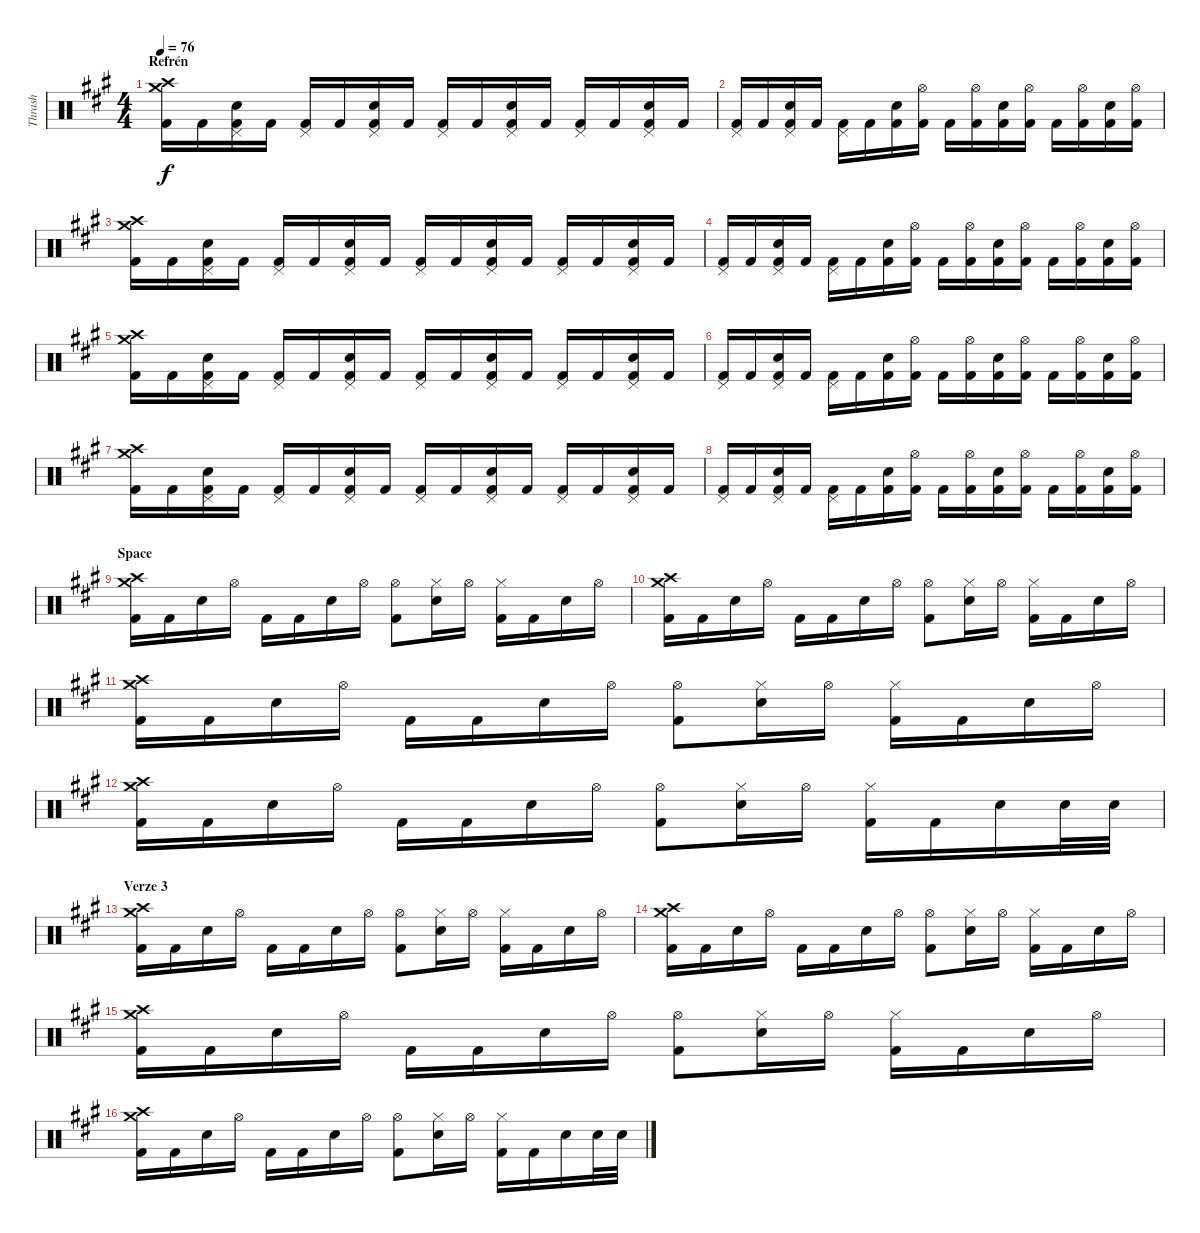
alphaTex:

\track ("Thrash" "Thrash") {instrument percussion}
\staff {score}
\articulation defaults
\ts (4 4)
\section ("" "Refrén")
\tempo 76
\clef neutral
\ks a
("Crash medium (hit)" "Crash high (hit)" "Kick (hit) 2").16{dy f} "Kick (hit) 2".16 ("Pedal Hi-Hat (hit)" "Snare (hit) 2" "Kick (hit) 2").16 "Kick (hit) 2".16 ("Pedal Hi-Hat (hit)" "Kick (hit) 2").16 "Kick (hit) 2".16 ("Pedal Hi-Hat (hit)" "Snare (hit) 2" "Kick (hit) 2").16 "Kick (hit) 2".16 ("Pedal Hi-Hat (hit)" "Kick (hit) 2").16 "Kick (hit) 2".16 ("Pedal Hi-Hat (hit)" "Snare (hit) 2" "Kick (hit) 2").16 "Kick (hit) 2".16 ("Pedal Hi-Hat (hit)" "Kick (hit) 2").16 "Kick (hit) 2".16 ("Pedal Hi-Hat (hit)" "Snare (hit) 2" "Kick (hit) 2").16 "Kick (hit) 2".16 |
("Pedal Hi-Hat (hit)" "Kick (hit) 2").16 "Kick (hit) 2".16 ("Pedal Hi-Hat (hit)" "Snare (hit) 2" "Kick (hit) 2").16 "Kick (hit) 2".16 ("Pedal Hi-Hat (hit)" "Kick (hit) 2").16 "Kick (hit) 2".16 ("Snare (hit) 2" "Kick (hit) 2").16 ("Hi-Hat (open)" "Kick (hit) 2").16 "Kick (hit) 2".16 ("Hi-Hat (open)" "Kick (hit) 2").16 ("Snare (hit) 2" "Kick (hit) 2").16 ("Hi-Hat (open)" "Kick (hit) 2").16 "Kick (hit) 2".16 ("Hi-Hat (open)" "Kick (hit) 2").16 ("Snare (hit) 2" "Kick (hit) 2").16 ("Hi-Hat (open)" "Kick (hit) 2").16 |
("Crash medium (hit)" "Crash high (hit)" "Kick (hit) 2").16 "Kick (hit) 2".16 ("Pedal Hi-Hat (hit)" "Snare (hit) 2" "Kick (hit) 2").16 "Kick (hit) 2".16 ("Pedal Hi-Hat (hit)" "Kick (hit) 2").16 "Kick (hit) 2".16 ("Pedal Hi-Hat (hit)" "Snare (hit) 2" "Kick (hit) 2").16 "Kick (hit) 2".16 ("Pedal Hi-Hat (hit)" "Kick (hit) 2").16 "Kick (hit) 2".16 ("Pedal Hi-Hat (hit)" "Snare (hit) 2" "Kick (hit) 2").16 "Kick (hit) 2".16 ("Pedal Hi-Hat (hit)" "Kick (hit) 2").16 "Kick (hit) 2".16 ("Pedal Hi-Hat (hit)" "Snare (hit) 2" "Kick (hit) 2").16 "Kick (hit) 2".16 |
("Pedal Hi-Hat (hit)" "Kick (hit) 2").16 "Kick (hit) 2".16 ("Pedal Hi-Hat (hit)" "Snare (hit) 2" "Kick (hit) 2").16 "Kick (hit) 2".16 ("Pedal Hi-Hat (hit)" "Kick (hit) 2").16 "Kick (hit) 2".16 ("Snare (hit) 2" "Kick (hit) 2").16 ("Hi-Hat (open)" "Kick (hit) 2").16 "Kick (hit) 2".16 ("Hi-Hat (open)" "Kick (hit) 2").16 ("Snare (hit) 2" "Kick (hit) 2").16 ("Hi-Hat (open)" "Kick (hit) 2").16 "Kick (hit) 2".16 ("Hi-Hat (open)" "Kick (hit) 2").16 ("Snare (hit) 2" "Kick (hit) 2").16 ("Hi-Hat (open)" "Kick (hit) 2").16 |
("Crash medium (hit)" "Crash high (hit)" "Kick (hit) 2").16 "Kick (hit) 2".16 ("Pedal Hi-Hat (hit)" "Snare (hit) 2" "Kick (hit) 2").16 "Kick (hit) 2".16 ("Pedal Hi-Hat (hit)" "Kick (hit) 2").16 "Kick (hit) 2".16 ("Pedal Hi-Hat (hit)" "Snare (hit) 2" "Kick (hit) 2").16 "Kick (hit) 2".16 ("Pedal Hi-Hat (hit)" "Kick (hit) 2").16 "Kick (hit) 2".16 ("Pedal Hi-Hat (hit)" "Snare (hit) 2" "Kick (hit) 2").16 "Kick (hit) 2".16 ("Pedal Hi-Hat (hit)" "Kick (hit) 2").16 "Kick (hit) 2".16 ("Pedal Hi-Hat (hit)" "Snare (hit) 2" "Kick (hit) 2").16 "Kick (hit) 2".16 |
("Pedal Hi-Hat (hit)" "Kick (hit) 2").16 "Kick (hit) 2".16 ("Pedal Hi-Hat (hit)" "Snare (hit) 2" "Kick (hit) 2").16 "Kick (hit) 2".16 ("Pedal Hi-Hat (hit)" "Kick (hit) 2").16 "Kick (hit) 2".16 ("Snare (hit) 2" "Kick (hit) 2").16 ("Hi-Hat (open)" "Kick (hit) 2").16 "Kick (hit) 2".16 ("Hi-Hat (open)" "Kick (hit) 2").16 ("Snare (hit) 2" "Kick (hit) 2").16 ("Hi-Hat (open)" "Kick (hit) 2").16 "Kick (hit) 2".16 ("Hi-Hat (open)" "Kick (hit) 2").16 ("Snare (hit) 2" "Kick (hit) 2").16 ("Hi-Hat (open)" "Kick (hit) 2").16 |
("Crash medium (hit)" "Crash high (hit)" "Kick (hit) 2").16 "Kick (hit) 2".16 ("Pedal Hi-Hat (hit)" "Snare (hit) 2" "Kick (hit) 2").16 "Kick (hit) 2".16 ("Pedal Hi-Hat (hit)" "Kick (hit) 2").16 "Kick (hit) 2".16 ("Pedal Hi-Hat (hit)" "Snare (hit) 2" "Kick (hit) 2").16 "Kick (hit) 2".16 ("Pedal Hi-Hat (hit)" "Kick (hit) 2").16 "Kick (hit) 2".16 ("Pedal Hi-Hat (hit)" "Snare (hit) 2" "Kick (hit) 2").16 "Kick (hit) 2".16 ("Pedal Hi-Hat (hit)" "Kick (hit) 2").16 "Kick (hit) 2".16 ("Pedal Hi-Hat (hit)" "Snare (hit) 2" "Kick (hit) 2").16 "Kick (hit) 2".16 |
("Pedal Hi-Hat (hit)" "Kick (hit) 2").16 "Kick (hit) 2".16 ("Pedal Hi-Hat (hit)" "Snare (hit) 2" "Kick (hit) 2").16 "Kick (hit) 2".16 ("Pedal Hi-Hat (hit)" "Kick (hit) 2").16 "Kick (hit) 2".16 ("Snare (hit) 2" "Kick (hit) 2").16 ("Hi-Hat (open)" "Kick (hit) 2").16 "Kick (hit) 2".16 ("Hi-Hat (open)" "Kick (hit) 2").16 ("Snare (hit) 2" "Kick (hit) 2").16 ("Hi-Hat (open)" "Kick (hit) 2").16 "Kick (hit) 2".16 ("Hi-Hat (open)" "Kick (hit) 2").16 ("Snare (hit) 2" "Kick (hit) 2").16 ("Hi-Hat (open)" "Kick (hit) 2").16 |
\section ("" "Space")
("Crash medium (hit)" "Crash high (hit)" "Kick (hit) 2").16 "Kick (hit) 2".16 "Snare (hit) 2".16 "Hi-Hat (open)".16 "Kick (hit) 2".16 "Kick (hit) 2".16 "Snare (hit) 2".16 "Hi-Hat (open)".16 ("Hi-Hat (open)" "Kick (hit) 2").8 ("Hi-Hat (closed)" "Snare (hit) 2").16 "Hi-Hat (open)".16 ("Hi-Hat (closed)" "Kick (hit) 2").16 "Kick (hit) 2".16 "Snare (hit) 2".16 "Hi-Hat (open)".16 |
("Crash medium (hit)" "Crash high (hit)" "Kick (hit) 2").16 "Kick (hit) 2".16 "Snare (hit) 2".16 "Hi-Hat (open)".16 "Kick (hit) 2".16 "Kick (hit) 2".16 "Snare (hit) 2".16 "Hi-Hat (open)".16 ("Hi-Hat (open)" "Kick (hit) 2").8 ("Hi-Hat (closed)" "Snare (hit) 2").16 "Hi-Hat (open)".16 ("Hi-Hat (closed)" "Kick (hit) 2").16 "Kick (hit) 2".16 "Snare (hit) 2".16 "Hi-Hat (open)".16 |
("Crash medium (hit)" "Crash high (hit)" "Kick (hit) 2").16 "Kick (hit) 2".16 "Snare (hit) 2".16 "Hi-Hat (open)".16 "Kick (hit) 2".16 "Kick (hit) 2".16 "Snare (hit) 2".16 "Hi-Hat (open)".16 ("Hi-Hat (open)" "Kick (hit) 2").8 ("Hi-Hat (closed)" "Snare (hit) 2").16 "Hi-Hat (open)".16 ("Hi-Hat (closed)" "Kick (hit) 2").16 "Kick (hit) 2".16 "Snare (hit) 2".16 "Hi-Hat (open)".16 |
("Crash medium (hit)" "Crash high (hit)" "Kick (hit) 2").16 "Kick (hit) 2".16 "Snare (hit) 2".16 "Hi-Hat (open)".16 "Kick (hit) 2".16 "Kick (hit) 2".16 "Snare (hit) 2".16 "Hi-Hat (open)".16 ("Hi-Hat (open)" "Kick (hit) 2").8 ("Hi-Hat (closed)" "Snare (hit) 2").16 "Hi-Hat (open)".16 ("Hi-Hat (closed)" "Kick (hit) 2").16 "Kick (hit) 2".16 "Snare (hit) 2".16 "Snare (hit) 2".32 "Snare (hit) 2".32 |
\section ("" "Verze 3")
("Crash medium (hit)" "Crash high (hit)" "Kick (hit) 2").16 "Kick (hit) 2".16 "Snare (hit) 2".16 "Hi-Hat (open)".16 "Kick (hit) 2".16 "Kick (hit) 2".16 "Snare (hit) 2".16 "Hi-Hat (open)".16 ("Hi-Hat (open)" "Kick (hit) 2").8 ("Hi-Hat (closed)" "Snare (hit) 2").16 "Hi-Hat (open)".16 ("Hi-Hat (closed)" "Kick (hit) 2").16 "Kick (hit) 2".16 "Snare (hit) 2".16 "Hi-Hat (open)".16 |
("Crash medium (hit)" "Crash high (hit)" "Kick (hit) 2").16 "Kick (hit) 2".16 "Snare (hit) 2".16 "Hi-Hat (open)".16 "Kick (hit) 2".16 "Kick (hit) 2".16 "Snare (hit) 2".16 "Hi-Hat (open)".16 ("Hi-Hat (open)" "Kick (hit) 2").8 ("Hi-Hat (closed)" "Snare (hit) 2").16 "Hi-Hat (open)".16 ("Hi-Hat (closed)" "Kick (hit) 2").16 "Kick (hit) 2".16 "Snare (hit) 2".16 "Hi-Hat (open)".16 |
("Crash medium (hit)" "Crash high (hit)" "Kick (hit) 2").16 "Kick (hit) 2".16 "Snare (hit) 2".16 "Hi-Hat (open)".16 "Kick (hit) 2".16 "Kick (hit) 2".16 "Snare (hit) 2".16 "Hi-Hat (open)".16 ("Hi-Hat (open)" "Kick (hit) 2").8 ("Hi-Hat (closed)" "Snare (hit) 2").16 "Hi-Hat (open)".16 ("Hi-Hat (closed)" "Kick (hit) 2").16 "Kick (hit) 2".16 "Snare (hit) 2".16 "Hi-Hat (open)".16 |
("Crash medium (hit)" "Crash high (hit)" "Kick (hit) 2").16 "Kick (hit) 2".16 "Snare (hit) 2".16 "Hi-Hat (open)".16 "Kick (hit) 2".16 "Kick (hit) 2".16 "Snare (hit) 2".16 "Hi-Hat (open)".16 ("Hi-Hat (open)" "Kick (hit) 2").8 ("Hi-Hat (closed)" "Snare (hit) 2").16 "Hi-Hat (open)".16 ("Hi-Hat (closed)" "Kick (hit) 2").16 "Kick (hit) 2".16 "Snare (hit) 2".16 "Snare (hit) 2".32 "Snare (hit) 2".32
